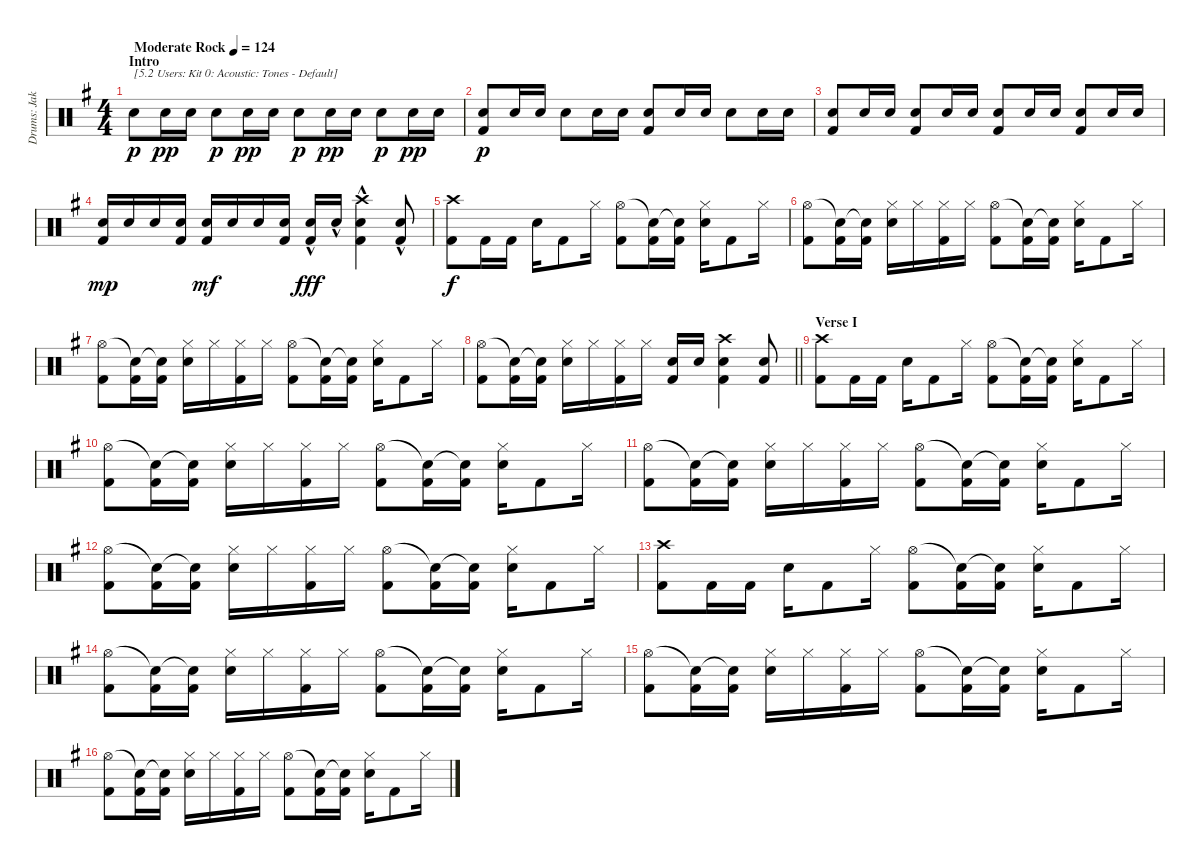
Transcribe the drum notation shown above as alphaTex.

\track ("Drums: Jakson" "Drums: Jak") {instrument percussion}
\staff {score}
\articulation defaults
\ts (4 4)
\section ("" "Intro")
\tempo (124 "Moderate Rock")
\clef neutral
\ks g "Snare (hit) 2".8{txt "[5.2 Users: Kit 0: Acoustic: Tones - Default]" dy p} "Electric Snare (hit)".16{dy pp} "Electric Snare (hit)".16 "Snare (hit) 2".8{dy p} "Electric Snare (hit)".16{dy pp} "Electric Snare (hit)".16 "Snare (hit) 2".8{dy p} "Electric Snare (hit)".16{dy pp} "Electric Snare (hit)".16 "Snare (hit) 2".8{dy p} "Electric Snare (hit)".16{dy pp} "Electric Snare (hit)".16
|
("Snare (hit) 2" "Kick (hit) 2").8{dy p} "Electric Snare (hit)".16 "Electric Snare (hit)".16 "Snare (hit) 2".8 "Electric Snare (hit)".16 "Electric Snare (hit)".16 ("Snare (hit) 2" "Kick (hit) 2").8 "Electric Snare (hit)".16 "Electric Snare (hit)".16 "Snare (hit) 2".8 "Electric Snare (hit)".16 "Electric Snare (hit)".16 |
("Snare (hit) 2" "Kick (hit) 2").8 "Electric Snare (hit)".16 "Electric Snare (hit)".16 ("Snare (hit) 2" "Kick (hit) 2").8 "Electric Snare (hit)".16 "Electric Snare (hit)".16 ("Snare (hit) 2" "Kick (hit) 2").8 "Electric Snare (hit)".16 "Electric Snare (hit)".16 ("Snare (hit) 2" "Kick (hit) 2").8 "Electric Snare (hit)".16 "Electric Snare (hit)".16 |
("Snare (hit) 2" "Kick (hit) 2").16{dy mp} "Electric Snare (hit)".16 "Electric Snare (hit)".16 ("Snare (hit) 2" "Kick (hit) 2").16 ("Snare (hit) 2" "Kick (hit) 2").16{dy mf} "Electric Snare (hit)".16 "Electric Snare (hit)".16 ("Snare (hit) 2" "Kick (hit) 2").16 ("Snare (hit) 2"{hac} "Kick (hit) 2"{hac}).16{dy fff} "Electric Snare (hit)"{hac}.16 ("Crash high (hit)"{hac} "Snare (hit) 2"{hac} "Kick (hit) 2"{hac}).4 ("Snare (hit) 2"{hac} "Kick (hit) 2"{hac}).8 |
("Crash high (hit)" "Kick (hit) 2").8{dy f} "Kick (hit) 2".16 "Kick (hit) 2".16 "Electric Snare (hit)".16 "Kick (hit) 2".8 "Hi-Hat (closed)".16 ("Hi-Hat (open)" "Kick (hit) 2").8 ("Snare (hit)"{t} "Kick (hit) 2").16 ("Snare (hit)"{t} "Kick (hit) 2").16 ("Hi-Hat (closed)" "Electric Snare (hit)").16 "Kick (hit) 2".8 "Hi-Hat (closed)".16 |
("Hi-Hat (open)" "Kick (hit) 2").8 ("Snare (hit)"{t} "Kick (hit) 2").16 ("Snare (hit)"{t} "Kick (hit) 2").16 ("Hi-Hat (closed)" "Electric Snare (hit)").16 "Hi-Hat (closed)".16 ("Hi-Hat (closed)" "Kick (hit) 2").16 "Hi-Hat (closed)".16 ("Hi-Hat (open)" "Kick (hit) 2").8 ("Snare (hit)"{t} "Kick (hit) 2").16 ("Snare (hit)"{t} "Kick (hit) 2").16 ("Hi-Hat (closed)" "Electric Snare (hit)").16 "Kick (hit) 2".8 "Hi-Hat (closed)".16 |
("Hi-Hat (open)" "Kick (hit) 2").8 ("Snare (hit)"{t} "Kick (hit) 2").16 ("Snare (hit)"{t} "Kick (hit) 2").16 ("Hi-Hat (closed)" "Electric Snare (hit)").16 "Hi-Hat (closed)".16 ("Hi-Hat (closed)" "Kick (hit) 2").16 "Hi-Hat (closed)".16 ("Hi-Hat (open)" "Kick (hit) 2").8 ("Snare (hit)"{t} "Kick (hit) 2").16 ("Snare (hit)"{t} "Kick (hit) 2").16 ("Hi-Hat (closed)" "Electric Snare (hit)").16 "Kick (hit) 2".8 "Hi-Hat (closed)".16 |
\barLineRight lightlight
("Hi-Hat (open)" "Kick (hit) 2").8 ("Snare (hit)"{t} "Kick (hit) 2").16 ("Snare (hit)"{t} "Kick (hit) 2").16 ("Hi-Hat (closed)" "Electric Snare (hit)").16 "Hi-Hat (closed)".16 ("Hi-Hat (closed)" "Kick (hit) 2").16 "Hi-Hat (closed)".16 ("Snare (hit) 2" "Kick (hit) 2").16 "Electric Snare (hit)".16 ("Crash high (hit)" "Snare (hit) 2" "Kick (hit) 2").4 ("Snare (hit) 2" "Kick (hit) 2").8 |
\section ("" "Verse I")
("Crash high (hit)" "Kick (hit) 2").8 "Kick (hit) 2".16 "Kick (hit) 2".16 "Electric Snare (hit)".16 "Kick (hit) 2".8 "Hi-Hat (closed)".16 ("Hi-Hat (open)" "Kick (hit) 2").8 ("Snare (hit)"{t} "Kick (hit) 2").16 ("Snare (hit)"{t} "Kick (hit) 2").16 ("Hi-Hat (closed)" "Electric Snare (hit)").16 "Kick (hit) 2".8 "Hi-Hat (closed)".16 |
("Hi-Hat (open)" "Kick (hit) 2").8 ("Snare (hit)"{t} "Kick (hit) 2").16 ("Snare (hit)"{t} "Kick (hit) 2").16 ("Hi-Hat (closed)" "Electric Snare (hit)").16 "Hi-Hat (closed)".16 ("Hi-Hat (closed)" "Kick (hit) 2").16 "Hi-Hat (closed)".16 ("Hi-Hat (open)" "Kick (hit) 2").8 ("Snare (hit)"{t} "Kick (hit) 2").16 ("Snare (hit)"{t} "Kick (hit) 2").16 ("Hi-Hat (closed)" "Electric Snare (hit)").16 "Kick (hit) 2".8 "Hi-Hat (closed)".16 |
("Hi-Hat (open)" "Kick (hit) 2").8 ("Snare (hit)"{t} "Kick (hit) 2").16 ("Snare (hit)"{t} "Kick (hit) 2").16 ("Hi-Hat (closed)" "Electric Snare (hit)").16 "Hi-Hat (closed)".16 ("Hi-Hat (closed)" "Kick (hit) 2").16 "Hi-Hat (closed)".16 ("Hi-Hat (open)" "Kick (hit) 2").8 ("Snare (hit)"{t} "Kick (hit) 2").16 ("Snare (hit)"{t} "Kick (hit) 2").16 ("Hi-Hat (closed)" "Electric Snare (hit)").16 "Kick (hit) 2".8 "Hi-Hat (closed)".16 |
("Hi-Hat (open)" "Kick (hit) 2").8 ("Snare (hit)"{t} "Kick (hit) 2").16 ("Snare (hit)"{t} "Kick (hit) 2").16 ("Hi-Hat (closed)" "Electric Snare (hit)").16 "Hi-Hat (closed)".16 ("Hi-Hat (closed)" "Kick (hit) 2").16 "Hi-Hat (closed)".16 ("Hi-Hat (open)" "Kick (hit) 2").8 ("Snare (hit)"{t} "Kick (hit) 2").16 ("Snare (hit)"{t} "Kick (hit) 2").16 ("Hi-Hat (closed)" "Electric Snare (hit)").16 "Kick (hit) 2".8 "Hi-Hat (closed)".16 |
("Crash high (hit)" "Kick (hit) 2").8 "Kick (hit) 2".16 "Kick (hit) 2".16 "Electric Snare (hit)".16 "Kick (hit) 2".8 "Hi-Hat (closed)".16 ("Hi-Hat (open)" "Kick (hit) 2").8 ("Snare (hit)"{t} "Kick (hit) 2").16 ("Snare (hit)"{t} "Kick (hit) 2").16 ("Hi-Hat (closed)" "Electric Snare (hit)").16 "Kick (hit) 2".8 "Hi-Hat (closed)".16 |
("Hi-Hat (open)" "Kick (hit) 2").8 ("Snare (hit)"{t} "Kick (hit) 2").16 ("Snare (hit)"{t} "Kick (hit) 2").16 ("Hi-Hat (closed)" "Electric Snare (hit)").16 "Hi-Hat (closed)".16 ("Hi-Hat (closed)" "Kick (hit) 2").16 "Hi-Hat (closed)".16 ("Hi-Hat (open)" "Kick (hit) 2").8 ("Snare (hit)"{t} "Kick (hit) 2").16 ("Snare (hit)"{t} "Kick (hit) 2").16 ("Hi-Hat (closed)" "Electric Snare (hit)").16 "Kick (hit) 2".8 "Hi-Hat (closed)".16 |
("Hi-Hat (open)" "Kick (hit) 2").8 ("Snare (hit)"{t} "Kick (hit) 2").16 ("Snare (hit)"{t} "Kick (hit) 2").16 ("Hi-Hat (closed)" "Electric Snare (hit)").16 "Hi-Hat (closed)".16 ("Hi-Hat (closed)" "Kick (hit) 2").16 "Hi-Hat (closed)".16 ("Hi-Hat (open)" "Kick (hit) 2").8 ("Snare (hit)"{t} "Kick (hit) 2").16 ("Snare (hit)"{t} "Kick (hit) 2").16 ("Hi-Hat (closed)" "Electric Snare (hit)").16 "Kick (hit) 2".8 "Hi-Hat (closed)".16 |
("Hi-Hat (open)" "Kick (hit) 2").8 ("Snare (hit)"{t} "Kick (hit) 2").16 ("Snare (hit)"{t} "Kick (hit) 2").16 ("Hi-Hat (closed)" "Electric Snare (hit)").16 "Hi-Hat (closed)".16 ("Hi-Hat (closed)" "Kick (hit) 2").16 "Hi-Hat (closed)".16 ("Hi-Hat (open)" "Kick (hit) 2").8 ("Snare (hit)"{t} "Kick (hit) 2").16 ("Snare (hit)"{t} "Kick (hit) 2").16 ("Hi-Hat (closed)" "Electric Snare (hit)").16 "Kick (hit) 2".8 "Hi-Hat (closed)".16
